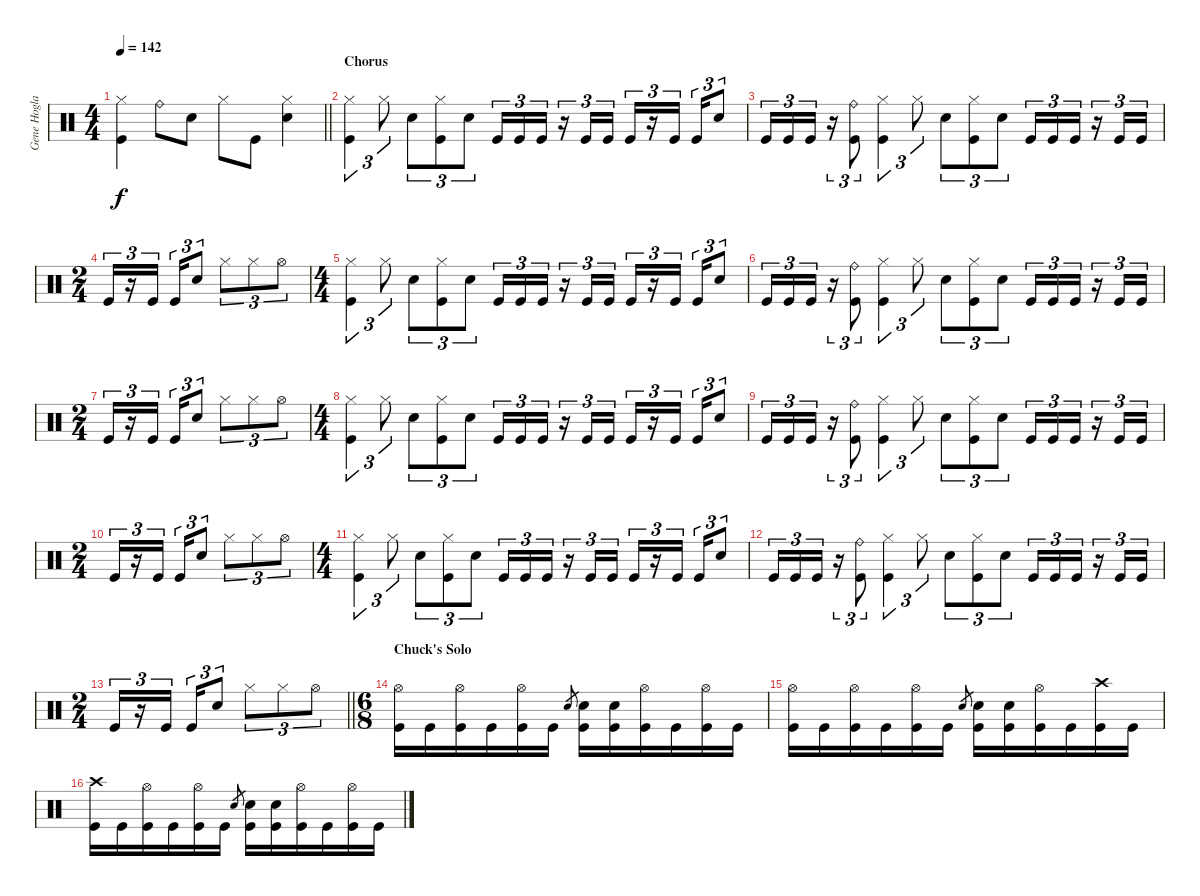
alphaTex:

\track ("Gene Hoglan" "Gene Hogla") {instrument percussion}
\staff {score}
\articulation defaults
\ts (4 4)
\tempo 142
\clef neutral
\barLineRight lightlight
\ks c
("Kick (hit)" "Hi-Hat (closed)").4{dy f} "Ride (bell)".8 "Snare (hit) 2".8 "Hi-Hat (closed)".8 "Kick (hit)".8 ("Snare (hit) 2" "Hi-Hat (closed)").4 |
\section ("" "Chorus")
("Kick (hit)" "Hi-Hat (closed)").4{tu (3 2)} "Hi-Hat (closed)".8{tu (3 2)} "Snare (hit) 2".8{tu (3 2)} ("Kick (hit)" "Hi-Hat (closed)").8{tu (3 2)} "Snare (hit) 2".8{tu (3 2)} "Kick (hit)".16{tu (3 2)} "Kick (hit)".16{tu (3 2)} "Kick (hit)".16{tu (3 2)} r.16{tu (3 2)} "Kick (hit)".16{tu (3 2)} "Kick (hit)".16{tu (3 2)} "Kick (hit)".16{tu (3 2)} r.16{tu (3 2)} "Kick (hit)".16{tu (3 2) beam splitsecondary} "Kick (hit)".16{tu (3 2)} "Snare (hit) 2".8{tu (3 2)} |
"Kick (hit)".16{tu (3 2)} "Kick (hit)".16{tu (3 2)} "Kick (hit)".16{tu (3 2)} r.16{tu (3 2)} ("Kick (hit)" "Ride (bell)").8{tu (3 2)} ("Kick (hit)" "Hi-Hat (closed)").4{tu (3 2)} "Hi-Hat (closed)".8{tu (3 2)} "Snare (hit) 2".8{tu (3 2)} ("Hi-Hat (closed)" "Kick (hit)").8{tu (3 2)} "Snare (hit) 2".8{tu (3 2)} "Kick (hit)".16{tu (3 2)} "Kick (hit)".16{tu (3 2)} "Kick (hit)".16{tu (3 2)} r.16{tu (3 2)} "Kick (hit)".16{tu (3 2)} "Kick (hit)".16{tu (3 2)} |
\ts (2 4)
"Kick (hit)".16{tu (3 2)} r.16{tu (3 2)} "Kick (hit)".16{tu (3 2) beam splitsecondary} "Kick (hit)".16{tu (3 2)} "Snare (hit) 2".8{tu (3 2)} "Hi-Hat (closed)".8{tu (3 2)} "Hi-Hat (closed)".8{tu (3 2)} "Hi-Hat (open)".8{tu (3 2)} |
\ts (4 4)
("Kick (hit)" "Hi-Hat (closed)").4{tu (3 2)} "Hi-Hat (closed)".8{tu (3 2)} "Snare (hit) 2".8{tu (3 2)} ("Kick (hit)" "Hi-Hat (closed)").8{tu (3 2)} "Snare (hit) 2".8{tu (3 2)} "Kick (hit)".16{tu (3 2)} "Kick (hit)".16{tu (3 2)} "Kick (hit)".16{tu (3 2)} r.16{tu (3 2)} "Kick (hit)".16{tu (3 2)} "Kick (hit)".16{tu (3 2)} "Kick (hit)".16{tu (3 2)} r.16{tu (3 2)} "Kick (hit)".16{tu (3 2) beam splitsecondary} "Kick (hit)".16{tu (3 2)} "Snare (hit) 2".8{tu (3 2)} |
"Kick (hit)".16{tu (3 2)} "Kick (hit)".16{tu (3 2)} "Kick (hit)".16{tu (3 2)} r.16{tu (3 2)} ("Kick (hit)" "Ride (bell)").8{tu (3 2)} ("Kick (hit)" "Hi-Hat (closed)").4{tu (3 2)} "Hi-Hat (closed)".8{tu (3 2)} "Snare (hit) 2".8{tu (3 2)} ("Hi-Hat (closed)" "Kick (hit)").8{tu (3 2)} "Snare (hit) 2".8{tu (3 2)} "Kick (hit)".16{tu (3 2)} "Kick (hit)".16{tu (3 2)} "Kick (hit)".16{tu (3 2)} r.16{tu (3 2)} "Kick (hit)".16{tu (3 2)} "Kick (hit)".16{tu (3 2)} |
\ts (2 4)
"Kick (hit)".16{tu (3 2)} r.16{tu (3 2)} "Kick (hit)".16{tu (3 2) beam splitsecondary} "Kick (hit)".16{tu (3 2)} "Snare (hit) 2".8{tu (3 2)} "Hi-Hat (closed)".8{tu (3 2)} "Hi-Hat (closed)".8{tu (3 2)} "Hi-Hat (open)".8{tu (3 2)} |
\ts (4 4)
("Kick (hit)" "Hi-Hat (closed)").4{tu (3 2)} "Hi-Hat (closed)".8{tu (3 2)} "Snare (hit) 2".8{tu (3 2)} ("Kick (hit)" "Hi-Hat (closed)").8{tu (3 2)} "Snare (hit) 2".8{tu (3 2)} "Kick (hit)".16{tu (3 2)} "Kick (hit)".16{tu (3 2)} "Kick (hit)".16{tu (3 2)} r.16{tu (3 2)} "Kick (hit)".16{tu (3 2)} "Kick (hit)".16{tu (3 2)} "Kick (hit)".16{tu (3 2)} r.16{tu (3 2)} "Kick (hit)".16{tu (3 2) beam splitsecondary} "Kick (hit)".16{tu (3 2)} "Snare (hit) 2".8{tu (3 2)} |
"Kick (hit)".16{tu (3 2)} "Kick (hit)".16{tu (3 2)} "Kick (hit)".16{tu (3 2)} r.16{tu (3 2)} ("Kick (hit)" "Ride (bell)").8{tu (3 2)} ("Kick (hit)" "Hi-Hat (closed)").4{tu (3 2)} "Hi-Hat (closed)".8{tu (3 2)} "Snare (hit) 2".8{tu (3 2)} ("Hi-Hat (closed)" "Kick (hit)").8{tu (3 2)} "Snare (hit) 2".8{tu (3 2)} "Kick (hit)".16{tu (3 2)} "Kick (hit)".16{tu (3 2)} "Kick (hit)".16{tu (3 2)} r.16{tu (3 2)} "Kick (hit)".16{tu (3 2)} "Kick (hit)".16{tu (3 2)} |
\ts (2 4)
"Kick (hit)".16{tu (3 2)} r.16{tu (3 2)} "Kick (hit)".16{tu (3 2) beam splitsecondary} "Kick (hit)".16{tu (3 2)} "Snare (hit) 2".8{tu (3 2)} "Hi-Hat (closed)".8{tu (3 2)} "Hi-Hat (closed)".8{tu (3 2)} "Hi-Hat (open)".8{tu (3 2)} |
\ts (4 4)
("Kick (hit)" "Hi-Hat (closed)").4{tu (3 2)} "Hi-Hat (closed)".8{tu (3 2)} "Snare (hit) 2".8{tu (3 2)} ("Kick (hit)" "Hi-Hat (closed)").8{tu (3 2)} "Snare (hit) 2".8{tu (3 2)} "Kick (hit)".16{tu (3 2)} "Kick (hit)".16{tu (3 2)} "Kick (hit)".16{tu (3 2)} r.16{tu (3 2)} "Kick (hit)".16{tu (3 2)} "Kick (hit)".16{tu (3 2)} "Kick (hit)".16{tu (3 2)} r.16{tu (3 2)} "Kick (hit)".16{tu (3 2) beam splitsecondary} "Kick (hit)".16{tu (3 2)} "Snare (hit) 2".8{tu (3 2)} |
"Kick (hit)".16{tu (3 2)} "Kick (hit)".16{tu (3 2)} "Kick (hit)".16{tu (3 2)} r.16{tu (3 2)} ("Kick (hit)" "Ride (bell)").8{tu (3 2)} ("Kick (hit)" "Hi-Hat (closed)").4{tu (3 2)} "Hi-Hat (closed)".8{tu (3 2)} "Snare (hit) 2".8{tu (3 2)} ("Hi-Hat (closed)" "Kick (hit)").8{tu (3 2)} "Snare (hit) 2".8{tu (3 2)} "Kick (hit)".16{tu (3 2)} "Kick (hit)".16{tu (3 2)} "Kick (hit)".16{tu (3 2)} r.16{tu (3 2)} "Kick (hit)".16{tu (3 2)} "Kick (hit)".16{tu (3 2)} |
\ts (2 4)
\barLineRight lightlight "Kick (hit)".16{tu (3 2)}
r.16{tu (3 2)} "Kick (hit)".16{tu (3 2) beam splitsecondary} "Kick (hit)".16{tu (3 2)} "Snare (hit) 2".8{tu (3 2)} "Hi-Hat (closed)".8{tu (3 2)} "Hi-Hat (closed)".8{tu (3 2)} "Hi-Hat (open)".8{tu (3 2)} |
\ts (6 8)
\section ("" "Chuck's Solo")
("Hi-Hat (open)" "Kick (hit)").16 "Kick (hit)".16 ("Hi-Hat (open)" "Kick (hit)").16 "Kick (hit)".16 ("Hi-Hat (open)" "Kick (hit)").16 "Kick (hit)".16 "Snare (hit) 2".8{gr} ("Snare (hit) 2" "Kick (hit)").16 ("Snare (hit) 2" "Kick (hit)").16 ("Hi-Hat (open)" "Kick (hit)").16 "Kick (hit)".16 ("Hi-Hat (open)" "Kick (hit)").16 "Kick (hit)".16 |
("Hi-Hat (open)" "Kick (hit)").16 "Kick (hit)".16 ("Hi-Hat (open)" "Kick (hit)").16 "Kick (hit)".16 ("Hi-Hat (open)" "Kick (hit)").16 "Kick (hit)".16 "Snare (hit) 2".8{gr} ("Snare (hit) 2" "Kick (hit)").16 ("Snare (hit) 2" "Kick (hit)").16 ("Hi-Hat (open)" "Kick (hit)").16 "Kick (hit)".16 ("Crash high (hit)" "Kick (hit)").16 "Kick (hit)".16 |
("Crash high (hit)" "Kick (hit)").16 "Kick (hit)".16 ("Hi-Hat (open)" "Kick (hit)").16 "Kick (hit)".16 ("Hi-Hat (open)" "Kick (hit)").16 "Kick (hit)".16 "Snare (hit) 2".8{gr} ("Snare (hit) 2" "Kick (hit)").16 ("Snare (hit) 2" "Kick (hit)").16 ("Hi-Hat (open)" "Kick (hit)").16 "Kick (hit)".16 ("Hi-Hat (open)" "Kick (hit)").16 "Kick (hit)".16
